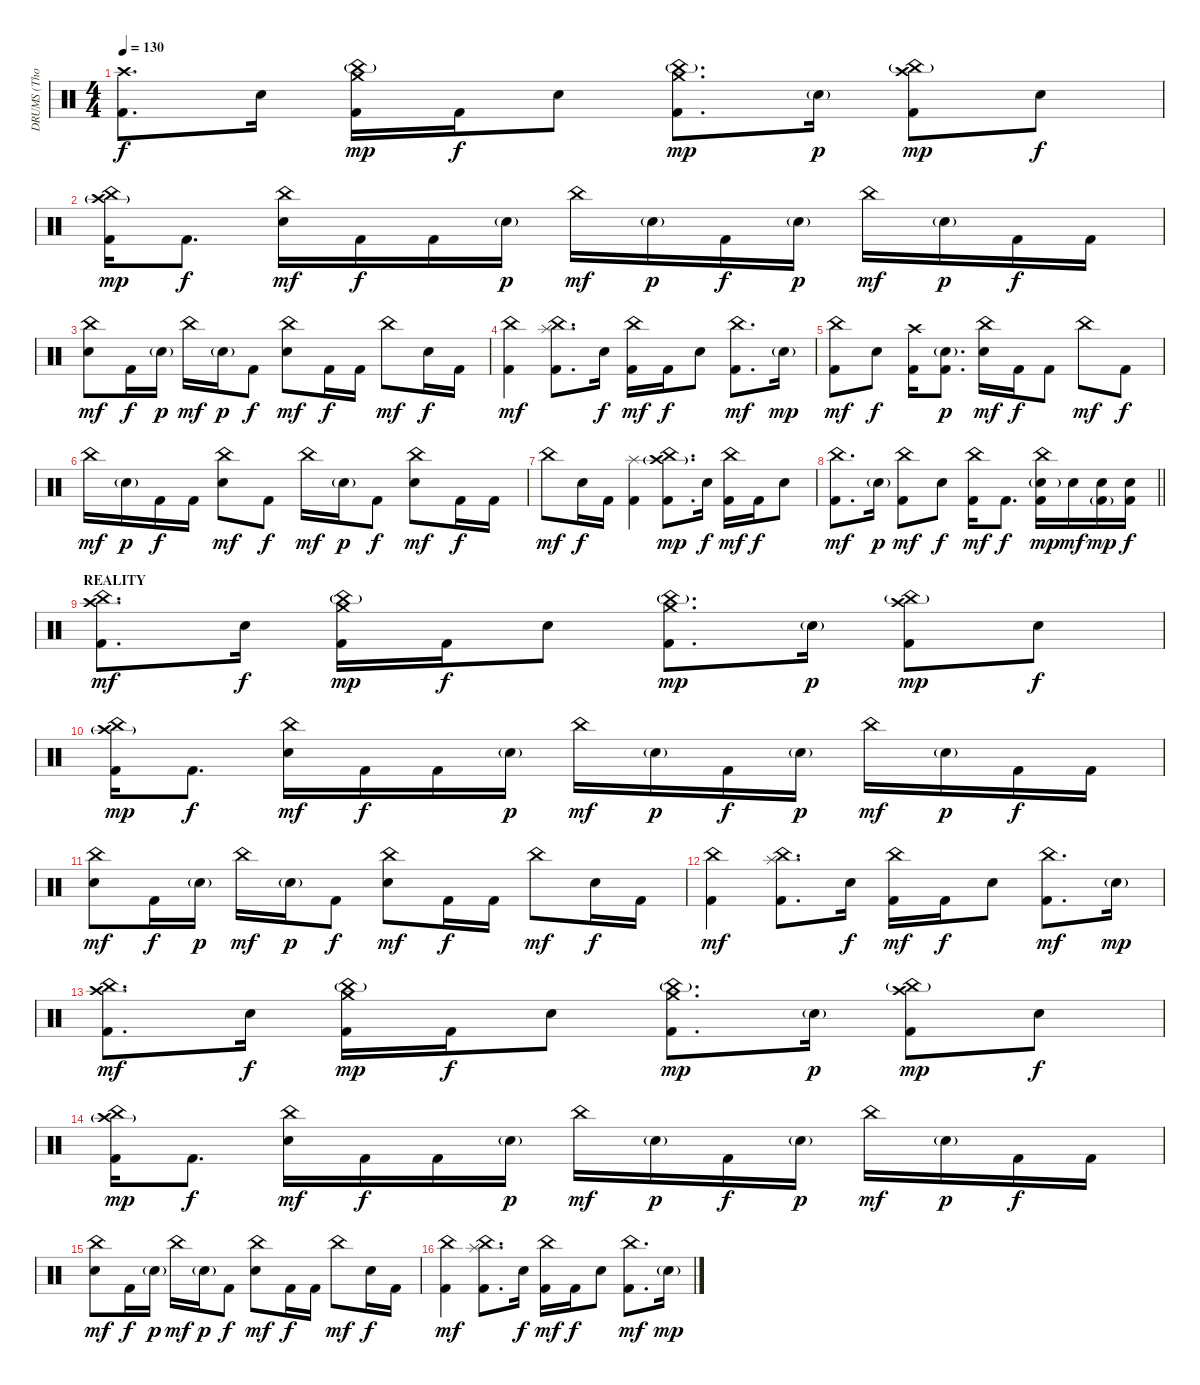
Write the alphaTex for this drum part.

\track ("DRUMS (Thomas Haake)" "DRUMS (Tho") {instrument percussion}
\staff {score}
\articulation defaults
\ts (4 4)
\tempo 130
\clef neutral
\ks c
("Crash high (hit)" "Kick (hit) 2").8{d dy f} "Electric Snare (hit)".16 ("Crash medium (hit)" "China (hit)"{g} "Kick (hit) 2").16{dy mp} "Kick (hit) 2".16{dy f} "Electric Snare (hit)".8 ("Crash medium (hit)" "China (hit)"{g} "Kick (hit) 2").8{d dy mp} "Electric Snare (hit)"{g}.16{dy p} ("Crash high (hit)" "China (hit)"{g} "Kick (hit) 2").8{dy mp} "Electric Snare (hit)".8{dy f} |
("China (hit)" "Crash high (hit)"{g} "Kick (hit) 2").16{dy mp} "Kick (hit) 2".8{d dy f} ("China (hit)" "Electric Snare (hit)").16{dy mf} "Kick (hit) 2".16{dy f} "Kick (hit) 2".16 "Electric Snare (hit)"{g}.16{dy p} "China (hit)".16{dy mf} "Electric Snare (hit)"{g}.16{dy p} "Kick (hit) 2".16{dy f} "Electric Snare (hit)"{g}.16{dy p} "China (hit)".16{dy mf} "Electric Snare (hit)"{g}.16{dy p} "Kick (hit) 2".16{dy f} "Kick (hit) 2".16 |
("China (hit)" "Electric Snare (hit)").8{dy mf} "Kick (hit) 2".16{dy f} "Electric Snare (hit)"{g}.16{dy p} "China (hit)".16{dy mf} "Electric Snare (hit)"{g}.16{dy p} "Kick (hit) 2".8{dy f} ("China (hit)" "Electric Snare (hit)").8{dy mf} "Kick (hit) 2".16{dy f} "Kick (hit) 2".16 "China (hit)".8{dy mf} "Electric Snare (hit)".16{dy f} "Kick (hit) 2".16 |
("China (hit)" "Kick (hit) 2").4{dy mf} ("China (hit)" "Splash (hit)" "Kick (hit) 2").8{d} "Electric Snare (hit)".16{dy f} ("China (hit)" "Kick (hit) 2").16{dy mf} "Kick (hit) 2".16{dy f} "Electric Snare (hit)".8 ("China (hit)" "Kick (hit) 2").8{d dy mf} "Electric Snare (hit)"{g}.16{dy mp} |
("China (hit)" "Kick (hit) 2").8{dy mf} "Electric Snare (hit)".8{dy f} ("Crash high (hit)" "Kick (hit) 2").16 ("Electric Snare (hit)"{g} "Kick (hit) 2").8{d dy p} ("China (hit)" "Electric Snare (hit)").16{dy mf} "Kick (hit) 2".16{dy f} "Kick (hit) 2".8 "China (hit)".8{dy mf} "Kick (hit) 2".8{dy f} |
"China (hit)".16{dy mf} "Electric Snare (hit)"{g}.16{dy p} "Kick (hit) 2".16{dy f} "Kick (hit) 2".16 ("China (hit)" "Electric Snare (hit)").8{dy mf} "Kick (hit) 2".8{dy f} "China (hit)".16{dy mf} "Electric Snare (hit)"{g}.16{dy p} "Kick (hit) 2".8{dy f} ("China (hit)" "Electric Snare (hit)").8{dy mf} "Kick (hit) 2".16{dy f} "Kick (hit) 2".16 |
"China (hit)".8{dy mf} "Electric Snare (hit)".16{dy f} "Kick (hit) 2".16 ("Splash (hit)" "Kick (hit) 2").4 ("China (hit)" "Crash high (hit)"{g} "Kick (hit) 2").8{d dy mp} "Electric Snare (hit)".16{dy f} ("China (hit)" "Kick (hit) 2").16{dy mf} "Kick (hit) 2".16{dy f} "Electric Snare (hit)".8 |
\barLineRight lightlight
("China (hit)" "Kick (hit) 2").8{d dy mf} "Electric Snare (hit)"{g}.16{dy p} ("China (hit)" "Kick (hit) 2").8{dy mf} "Electric Snare (hit)".8{dy f} ("China (hit)" "Kick (hit) 2").16{dy mf} "Kick (hit) 2".8{d dy f} ("China (hit)" "Electric Snare (hit)"{g} "Kick (hit) 2").16{dy mp} "Electric Snare (hit)".16{dy mf} ("Electric Snare (hit)" "Kick (hit) 2"{g}).16{dy mp} ("Electric Snare (hit)" "Kick (hit) 2").16{dy f} |
\section ("" "REALITY")
("China (hit)" "Crash high (hit)" "Kick (hit) 2").8{d dy mf} "Electric Snare (hit)".16{dy f} ("Crash medium (hit)" "China (hit)"{g} "Kick (hit) 2").16{dy mp} "Kick (hit) 2".16{dy f} "Electric Snare (hit)".8 ("Crash medium (hit)" "China (hit)"{g} "Kick (hit) 2").8{d dy mp} "Electric Snare (hit)"{g}.16{dy p} ("Crash high (hit)" "China (hit)"{g} "Kick (hit) 2").8{dy mp} "Electric Snare (hit)".8{dy f} |
("China (hit)" "Crash high (hit)"{g} "Kick (hit) 2").16{dy mp} "Kick (hit) 2".8{d dy f} ("China (hit)" "Electric Snare (hit)").16{dy mf} "Kick (hit) 2".16{dy f} "Kick (hit) 2".16 "Electric Snare (hit)"{g}.16{dy p} "China (hit)".16{dy mf} "Electric Snare (hit)"{g}.16{dy p} "Kick (hit) 2".16{dy f} "Electric Snare (hit)"{g}.16{dy p} "China (hit)".16{dy mf} "Electric Snare (hit)"{g}.16{dy p} "Kick (hit) 2".16{dy f} "Kick (hit) 2".16 |
("China (hit)" "Electric Snare (hit)").8{dy mf} "Kick (hit) 2".16{dy f} "Electric Snare (hit)"{g}.16{dy p} "China (hit)".16{dy mf} "Electric Snare (hit)"{g}.16{dy p} "Kick (hit) 2".8{dy f} ("China (hit)" "Electric Snare (hit)").8{dy mf} "Kick (hit) 2".16{dy f} "Kick (hit) 2".16 "China (hit)".8{dy mf} "Electric Snare (hit)".16{dy f} "Kick (hit) 2".16 |
("China (hit)" "Kick (hit) 2").4{dy mf} ("China (hit)" "Splash (hit)" "Kick (hit) 2").8{d} "Electric Snare (hit)".16{dy f} ("China (hit)" "Kick (hit) 2").16{dy mf} "Kick (hit) 2".16{dy f} "Electric Snare (hit)".8 ("China (hit)" "Kick (hit) 2").8{d dy mf} "Electric Snare (hit)"{g}.16{dy mp} |
("China (hit)" "Crash high (hit)" "Kick (hit) 2").8{d dy mf} "Electric Snare (hit)".16{dy f} ("Crash medium (hit)" "China (hit)"{g} "Kick (hit) 2").16{dy mp} "Kick (hit) 2".16{dy f} "Electric Snare (hit)".8 ("Crash medium (hit)" "China (hit)"{g} "Kick (hit) 2").8{d dy mp} "Electric Snare (hit)"{g}.16{dy p} ("Crash high (hit)" "China (hit)"{g} "Kick (hit) 2").8{dy mp} "Electric Snare (hit)".8{dy f} |
("China (hit)" "Crash high (hit)"{g} "Kick (hit) 2").16{dy mp} "Kick (hit) 2".8{d dy f} ("China (hit)" "Electric Snare (hit)").16{dy mf} "Kick (hit) 2".16{dy f} "Kick (hit) 2".16 "Electric Snare (hit)"{g}.16{dy p} "China (hit)".16{dy mf} "Electric Snare (hit)"{g}.16{dy p} "Kick (hit) 2".16{dy f} "Electric Snare (hit)"{g}.16{dy p} "China (hit)".16{dy mf} "Electric Snare (hit)"{g}.16{dy p} "Kick (hit) 2".16{dy f} "Kick (hit) 2".16 |
("China (hit)" "Electric Snare (hit)").8{dy mf} "Kick (hit) 2".16{dy f} "Electric Snare (hit)"{g}.16{dy p} "China (hit)".16{dy mf} "Electric Snare (hit)"{g}.16{dy p} "Kick (hit) 2".8{dy f} ("China (hit)" "Electric Snare (hit)").8{dy mf} "Kick (hit) 2".16{dy f} "Kick (hit) 2".16 "China (hit)".8{dy mf} "Electric Snare (hit)".16{dy f} "Kick (hit) 2".16 |
("China (hit)" "Kick (hit) 2").4{dy mf} ("China (hit)" "Splash (hit)" "Kick (hit) 2").8{d} "Electric Snare (hit)".16{dy f} ("China (hit)" "Kick (hit) 2").16{dy mf} "Kick (hit) 2".16{dy f} "Electric Snare (hit)".8 ("China (hit)" "Kick (hit) 2").8{d dy mf} "Electric Snare (hit)"{g}.16{dy mp}
